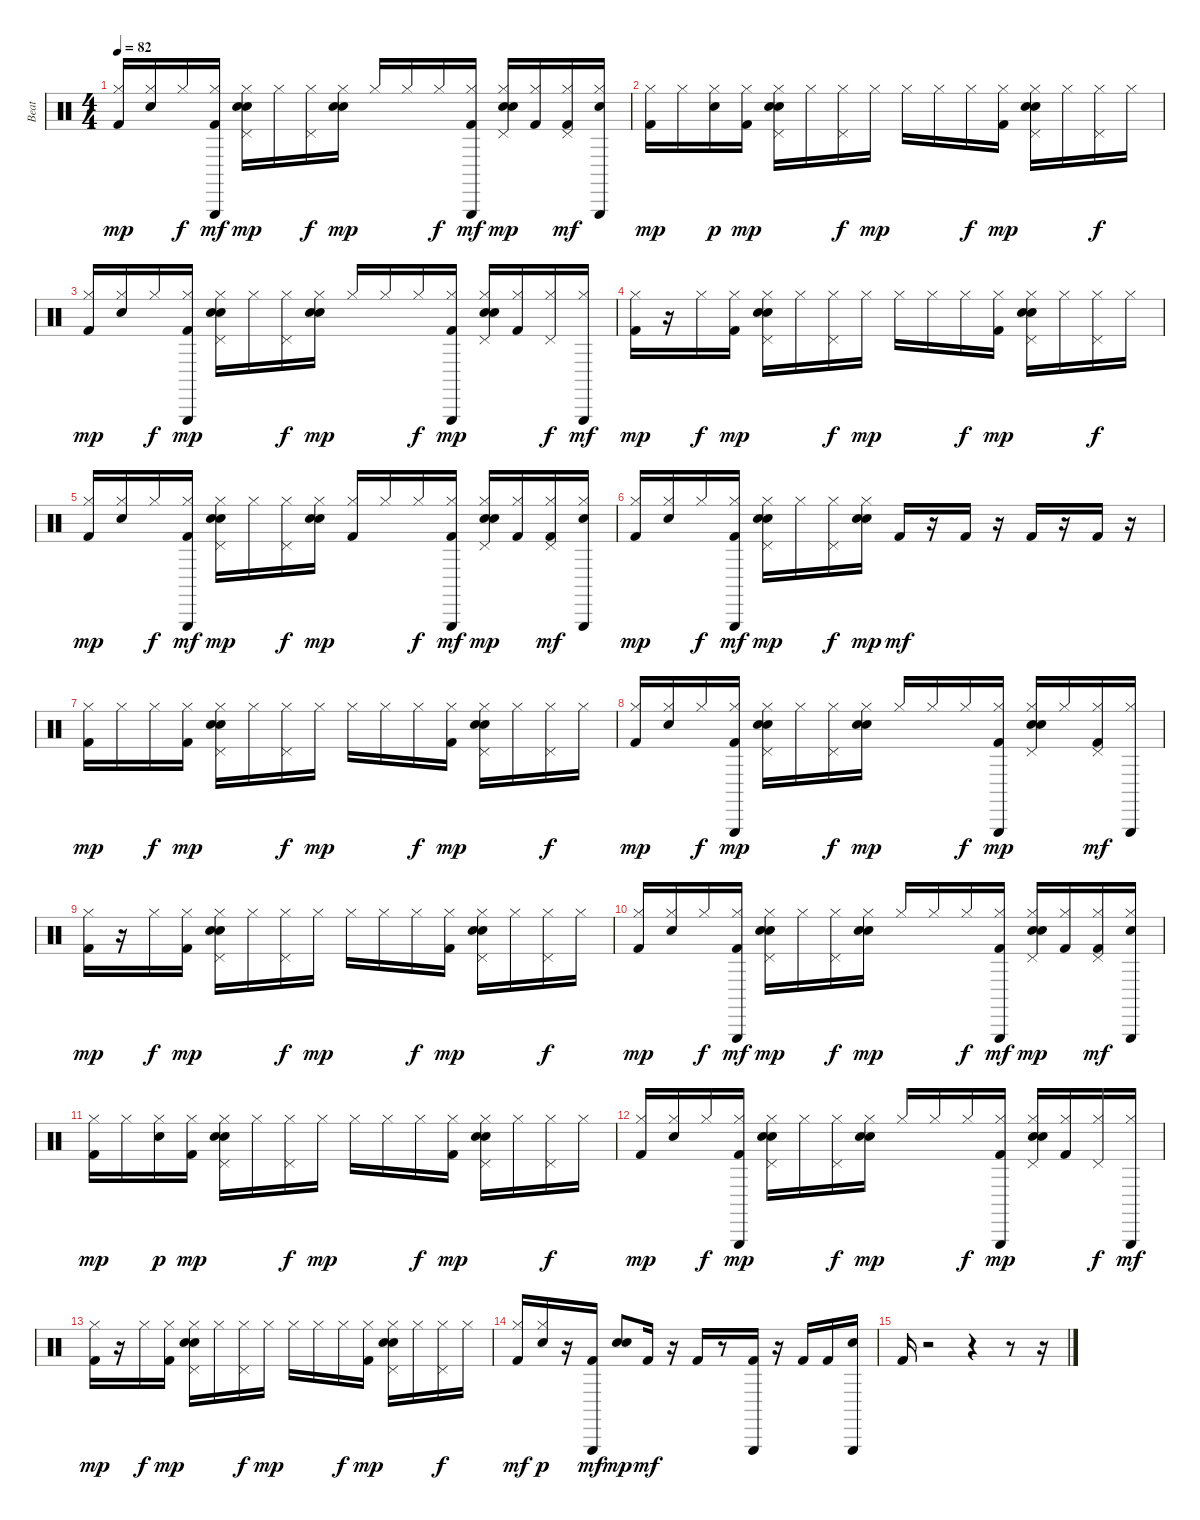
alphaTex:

\track ("Beat" "Beat") {instrument percussion}
\staff {score}
\articulation defaults
\ts (4 4)
\tempo 82
\clef neutral
\ks c
("Kick (hit) 2" "Hi-Hat (closed)").16{dy mp} ("Hand Clap (hit)" "Hi-Hat (closed)").16 "Hi-Hat (closed)".16{dy f} ("Kick (hit) 2" "Hi-Hat (closed)" "Triangle (hit)").16{dy mf} ("Pedal Hi-Hat (hit)" "Hi-Hat (closed)" "Hand Clap (hit)" "Electric Snare (hit)").16{dy mp} "Hi-Hat (closed)".16 ("Pedal Hi-Hat (hit)" "Hi-Hat (closed)").16{dy f} ("Electric Snare (hit)" "Hi-Hat (closed)" "Hand Clap (hit)").16{dy mp} "Hi-Hat (closed)".16 "Hi-Hat (closed)".16 "Hi-Hat (closed)".16{dy f} ("Kick (hit) 2" "Hi-Hat (closed)" "Triangle (hit)").16{dy mf} ("Pedal Hi-Hat (hit)" "Hi-Hat (closed)" "Hand Clap (hit)" "Electric Snare (hit)").16{dy mp} ("Kick (hit) 2" "Hi-Hat (closed)").16 ("Kick (hit) 2" "Pedal Hi-Hat (hit)" "Hi-Hat (closed)").16{dy mf} ("Hand Clap (hit)" "Hi-Hat (closed)" "Triangle (hit)").16 |
("Kick (hit) 2" "Hi-Hat (closed)").16{dy mp} "Hi-Hat (closed)".16 ("Hand Clap (hit)" "Hi-Hat (closed)").16{dy p} ("Kick (hit) 2" "Hi-Hat (closed)").16{dy mp} ("Pedal Hi-Hat (hit)" "Hi-Hat (closed)" "Hand Clap (hit)" "Electric Snare (hit)").16 "Hi-Hat (closed)".16 ("Pedal Hi-Hat (hit)" "Hi-Hat (closed)").16{dy f} "Hi-Hat (closed)".16{dy mp} "Hi-Hat (closed)".16 "Hi-Hat (closed)".16 "Hi-Hat (closed)".16{dy f} ("Kick (hit) 2" "Hi-Hat (closed)").16{dy mp} ("Pedal Hi-Hat (hit)" "Hi-Hat (closed)" "Hand Clap (hit)" "Electric Snare (hit)").16 "Hi-Hat (closed)".16 ("Pedal Hi-Hat (hit)" "Hi-Hat (closed)").16{dy f} "Hi-Hat (closed)".16 |
("Kick (hit) 2" "Hi-Hat (closed)").16{dy mp} ("Hand Clap (hit)" "Hi-Hat (closed)").16 "Hi-Hat (closed)".16{dy f} ("Kick (hit) 2" "Triangle (hit)" "Hi-Hat (closed)").16{dy mp} ("Pedal Hi-Hat (hit)" "Hi-Hat (closed)" "Hand Clap (hit)" "Electric Snare (hit)").16 "Hi-Hat (closed)".16 ("Pedal Hi-Hat (hit)" "Hi-Hat (closed)").16{dy f} ("Electric Snare (hit)" "Hi-Hat (closed)" "Hand Clap (hit)").16{dy mp} "Hi-Hat (closed)".16 "Hi-Hat (closed)".16 "Hi-Hat (closed)".16{dy f} ("Kick (hit) 2" "Triangle (hit)" "Hi-Hat (closed)").16{dy mp} ("Pedal Hi-Hat (hit)" "Hi-Hat (closed)" "Hand Clap (hit)" "Electric Snare (hit)").16 ("Kick (hit) 2" "Hi-Hat (closed)").16 ("Pedal Hi-Hat (hit)" "Hi-Hat (closed)").16{dy f} ("Triangle (hit)" "Hi-Hat (closed)").16{dy mf} |
("Kick (hit) 2" "Hi-Hat (closed)").16{dy mp} r.16 "Hi-Hat (closed)".16{dy f} ("Kick (hit) 2" "Hi-Hat (closed)").16{dy mp} ("Pedal Hi-Hat (hit)" "Hi-Hat (closed)" "Hand Clap (hit)" "Electric Snare (hit)").16 "Hi-Hat (closed)".16 ("Pedal Hi-Hat (hit)" "Hi-Hat (closed)").16{dy f} "Hi-Hat (closed)".16{dy mp} "Hi-Hat (closed)".16 "Hi-Hat (closed)".16 "Hi-Hat (closed)".16{dy f} ("Kick (hit) 2" "Hi-Hat (closed)").16{dy mp} ("Pedal Hi-Hat (hit)" "Hi-Hat (closed)" "Hand Clap (hit)" "Electric Snare (hit)").16 "Hi-Hat (closed)".16 ("Pedal Hi-Hat (hit)" "Hi-Hat (closed)").16{dy f} "Hi-Hat (closed)".16 |
("Kick (hit) 2" "Hi-Hat (closed)").16{dy mp} ("Hand Clap (hit)" "Hi-Hat (closed)").16 "Hi-Hat (closed)".16{dy f} ("Kick (hit) 2" "Hi-Hat (closed)" "Triangle (hit)").16{dy mf} ("Pedal Hi-Hat (hit)" "Hi-Hat (closed)" "Hand Clap (hit)" "Electric Snare (hit)").16{dy mp} "Hi-Hat (closed)".16 ("Pedal Hi-Hat (hit)" "Hi-Hat (closed)").16{dy f} ("Electric Snare (hit)" "Hi-Hat (closed)" "Hand Clap (hit)").16{dy mp} ("Kick (hit) 2" "Hi-Hat (closed)").16 "Hi-Hat (closed)".16 "Hi-Hat (closed)".16{dy f} ("Kick (hit) 2" "Hi-Hat (closed)" "Triangle (hit)").16{dy mf} ("Pedal Hi-Hat (hit)" "Hi-Hat (closed)" "Hand Clap (hit)" "Electric Snare (hit)").16{dy mp} ("Kick (hit) 2" "Hi-Hat (closed)").16 ("Kick (hit) 2" "Pedal Hi-Hat (hit)" "Hi-Hat (closed)").16{dy mf} ("Hand Clap (hit)" "Hi-Hat (closed)" "Triangle (hit)").16 |
("Kick (hit) 2" "Hi-Hat (closed)").16{dy mp} ("Hand Clap (hit)" "Hi-Hat (closed)").16 "Hi-Hat (closed)".16{dy f} ("Kick (hit) 2" "Hi-Hat (closed)" "Triangle (hit)").16{dy mf} ("Pedal Hi-Hat (hit)" "Hi-Hat (closed)" "Hand Clap (hit)" "Electric Snare (hit)").16{dy mp} "Hi-Hat (closed)".16 ("Pedal Hi-Hat (hit)" "Hi-Hat (closed)").16{dy f} ("Electric Snare (hit)" "Hi-Hat (closed)" "Hand Clap (hit)").16{dy mp} "Kick (hit) 2".16{dy mf} r.16 "Kick (hit) 2".16 r.16 "Kick (hit) 2".16 r.16 "Kick (hit) 2".16 r.16 |
("Kick (hit) 2" "Hi-Hat (closed)").16{dy mp} "Hi-Hat (closed)".16 "Hi-Hat (closed)".16{dy f} ("Kick (hit) 2" "Hi-Hat (closed)").16{dy mp} ("Pedal Hi-Hat (hit)" "Hi-Hat (closed)" "Hand Clap (hit)" "Electric Snare (hit)").16 "Hi-Hat (closed)".16 ("Pedal Hi-Hat (hit)" "Hi-Hat (closed)").16{dy f} "Hi-Hat (closed)".16{dy mp} "Hi-Hat (closed)".16 "Hi-Hat (closed)".16 "Hi-Hat (closed)".16{dy f} ("Kick (hit) 2" "Hi-Hat (closed)").16{dy mp} ("Pedal Hi-Hat (hit)" "Hi-Hat (closed)" "Hand Clap (hit)" "Electric Snare (hit)").16 "Hi-Hat (closed)".16 ("Pedal Hi-Hat (hit)" "Hi-Hat (closed)").16{dy f} "Hi-Hat (closed)".16 |
("Kick (hit) 2" "Hi-Hat (closed)").16{dy mp} ("Hand Clap (hit)" "Hi-Hat (closed)").16 "Hi-Hat (closed)".16{dy f} ("Kick (hit) 2" "Triangle (hit)" "Hi-Hat (closed)").16{dy mp} ("Pedal Hi-Hat (hit)" "Hi-Hat (closed)" "Hand Clap (hit)" "Electric Snare (hit)").16 "Hi-Hat (closed)".16 ("Pedal Hi-Hat (hit)" "Hi-Hat (closed)").16{dy f} ("Electric Snare (hit)" "Hi-Hat (closed)" "Hand Clap (hit)").16{dy mp} "Hi-Hat (closed)".16 "Hi-Hat (closed)".16 "Hi-Hat (closed)".16{dy f} ("Kick (hit) 2" "Triangle (hit)" "Hi-Hat (closed)").16{dy mp} ("Pedal Hi-Hat (hit)" "Hi-Hat (closed)" "Hand Clap (hit)" "Electric Snare (hit)").16 "Hi-Hat (closed)".16 ("Kick (hit) 2" "Pedal Hi-Hat (hit)" "Hi-Hat (closed)").16{dy mf} ("Triangle (hit)" "Hi-Hat (closed)").16 |
("Kick (hit) 2" "Hi-Hat (closed)").16{dy mp} r.16 "Hi-Hat (closed)".16{dy f} ("Kick (hit) 2" "Hi-Hat (closed)").16{dy mp} ("Pedal Hi-Hat (hit)" "Hi-Hat (closed)" "Hand Clap (hit)" "Electric Snare (hit)").16 "Hi-Hat (closed)".16 ("Pedal Hi-Hat (hit)" "Hi-Hat (closed)").16{dy f} "Hi-Hat (closed)".16{dy mp} "Hi-Hat (closed)".16 "Hi-Hat (closed)".16 "Hi-Hat (closed)".16{dy f} ("Kick (hit) 2" "Hi-Hat (closed)").16{dy mp} ("Pedal Hi-Hat (hit)" "Hi-Hat (closed)" "Hand Clap (hit)" "Electric Snare (hit)").16 "Hi-Hat (closed)".16 ("Pedal Hi-Hat (hit)" "Hi-Hat (closed)").16{dy f} "Hi-Hat (closed)".16 |
("Kick (hit) 2" "Hi-Hat (closed)").16{dy mp} ("Hand Clap (hit)" "Hi-Hat (closed)").16 "Hi-Hat (closed)".16{dy f} ("Kick (hit) 2" "Hi-Hat (closed)" "Triangle (hit)").16{dy mf} ("Pedal Hi-Hat (hit)" "Hi-Hat (closed)" "Hand Clap (hit)" "Electric Snare (hit)").16{dy mp} "Hi-Hat (closed)".16 ("Pedal Hi-Hat (hit)" "Hi-Hat (closed)").16{dy f} ("Electric Snare (hit)" "Hi-Hat (closed)" "Hand Clap (hit)").16{dy mp} "Hi-Hat (closed)".16 "Hi-Hat (closed)".16 "Hi-Hat (closed)".16{dy f} ("Kick (hit) 2" "Hi-Hat (closed)" "Triangle (hit)").16{dy mf} ("Pedal Hi-Hat (hit)" "Hi-Hat (closed)" "Hand Clap (hit)" "Electric Snare (hit)").16{dy mp} ("Kick (hit) 2" "Hi-Hat (closed)").16 ("Kick (hit) 2" "Pedal Hi-Hat (hit)" "Hi-Hat (closed)").16{dy mf} ("Hand Clap (hit)" "Hi-Hat (closed)" "Triangle (hit)").16 |
("Kick (hit) 2" "Hi-Hat (closed)").16{dy mp} "Hi-Hat (closed)".16 ("Hand Clap (hit)" "Hi-Hat (closed)").16{dy p} ("Kick (hit) 2" "Hi-Hat (closed)").16{dy mp} ("Pedal Hi-Hat (hit)" "Hi-Hat (closed)" "Hand Clap (hit)" "Electric Snare (hit)").16 "Hi-Hat (closed)".16 ("Pedal Hi-Hat (hit)" "Hi-Hat (closed)").16{dy f} "Hi-Hat (closed)".16{dy mp} "Hi-Hat (closed)".16 "Hi-Hat (closed)".16 "Hi-Hat (closed)".16{dy f} ("Kick (hit) 2" "Hi-Hat (closed)").16{dy mp} ("Pedal Hi-Hat (hit)" "Hi-Hat (closed)" "Hand Clap (hit)" "Electric Snare (hit)").16 "Hi-Hat (closed)".16 ("Pedal Hi-Hat (hit)" "Hi-Hat (closed)").16{dy f} "Hi-Hat (closed)".16 |
("Kick (hit) 2" "Hi-Hat (closed)").16{dy mp} ("Hand Clap (hit)" "Hi-Hat (closed)").16 "Hi-Hat (closed)".16{dy f} ("Kick (hit) 2" "Triangle (hit)" "Hi-Hat (closed)").16{dy mp} ("Pedal Hi-Hat (hit)" "Hi-Hat (closed)" "Hand Clap (hit)" "Electric Snare (hit)").16 "Hi-Hat (closed)".16 ("Pedal Hi-Hat (hit)" "Hi-Hat (closed)").16{dy f} ("Electric Snare (hit)" "Hi-Hat (closed)" "Hand Clap (hit)").16{dy mp} "Hi-Hat (closed)".16 "Hi-Hat (closed)".16 "Hi-Hat (closed)".16{dy f} ("Kick (hit) 2" "Triangle (hit)" "Hi-Hat (closed)").16{dy mp} ("Pedal Hi-Hat (hit)" "Hi-Hat (closed)" "Hand Clap (hit)" "Electric Snare (hit)").16 ("Kick (hit) 2" "Hi-Hat (closed)").16 ("Pedal Hi-Hat (hit)" "Hi-Hat (closed)").16{dy f} ("Triangle (hit)" "Hi-Hat (closed)").16{dy mf} |
("Kick (hit) 2" "Hi-Hat (closed)").16{dy mp} r.16 "Hi-Hat (closed)".16{dy f} ("Kick (hit) 2" "Hi-Hat (closed)").16{dy mp} ("Pedal Hi-Hat (hit)" "Hi-Hat (closed)" "Hand Clap (hit)" "Electric Snare (hit)").16 "Hi-Hat (closed)".16 ("Pedal Hi-Hat (hit)" "Hi-Hat (closed)").16{dy f} "Hi-Hat (closed)".16{dy mp} "Hi-Hat (closed)".16 "Hi-Hat (closed)".16 "Hi-Hat (closed)".16{dy f} ("Kick (hit) 2" "Hi-Hat (closed)").16{dy mp} ("Pedal Hi-Hat (hit)" "Hi-Hat (closed)" "Hand Clap (hit)" "Electric Snare (hit)").16 "Hi-Hat (closed)".16 ("Pedal Hi-Hat (hit)" "Hi-Hat (closed)").16{dy f} "Hi-Hat (closed)".16 |
("Hi-Hat (closed)" "Kick (hit) 2").16{dy mf} ("Hi-Hat (closed)" "Hand Clap (hit)").16{dy p} r.16 ("Kick (hit) 2" "Triangle (hit)").16{dy mf} ("Hand Clap (hit)" "Electric Snare (hit)").8{dy mp} "Kick (hit) 2".16{dy mf} r.16 "Kick (hit) 2".16 r.8 ("Kick (hit) 2" "Triangle (hit)").16 r.16 "Kick (hit) 2".16 "Kick (hit) 2".16 ("Hand Clap (hit)" "Triangle (hit)").16 |
"Kick (hit) 2".16 r.2 r.4 r.8 r.16
